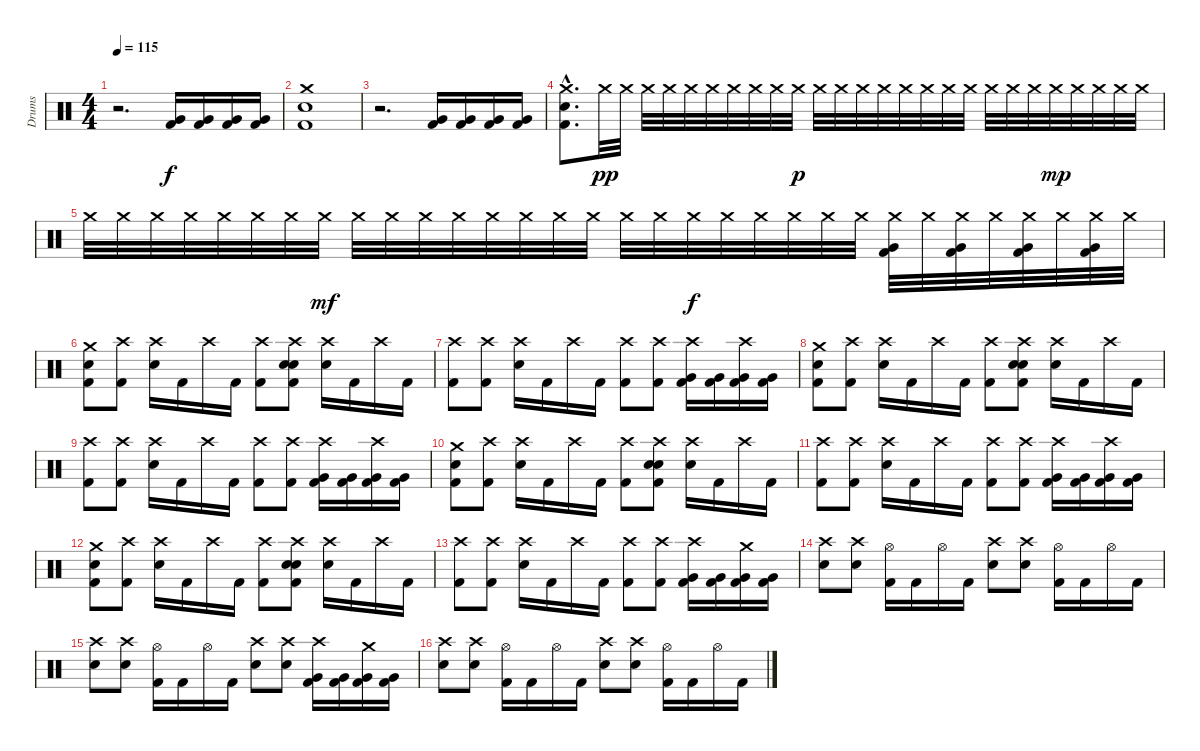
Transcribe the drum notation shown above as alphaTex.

\track ("Drums" "Drums") {instrument percussion}
\staff {score}
\articulation defaults
\ts (4 4)
\tempo 115
\clef neutral
\ks c
r.2{d dy f} ("Very Low Tom (hit)" "Kick (hit) 2").16 ("Very Low Tom (hit)" "Kick (hit) 2").16 ("Very Low Tom (hit)" "Kick (hit) 2").16 ("Very Low Tom (hit)" "Kick (hit) 2").16 |
("Crash medium (hit)" "Electric Snare (hit)" "Kick (hit) 2").1 |
r.2{d} ("Very Low Tom (hit)" "Kick (hit) 2").16 ("Very Low Tom (hit)" "Kick (hit) 2").16 ("Very Low Tom (hit)" "Kick (hit) 2").16 ("Very Low Tom (hit)" "Kick (hit) 2").16 |
("Crash medium (hit)"{hac} "Electric Snare (hit)"{hac} "Kick (hit) 2"{hac}).8{d} "Crash medium (hit)".32{dy pp} "Crash medium (hit)".32 "Crash medium (hit)".32 "Crash medium (hit)".32 "Crash medium (hit)".32 "Crash medium (hit)".32 "Crash medium (hit)".32 "Crash medium (hit)".32 "Crash medium (hit)".32 "Crash medium (hit)".32{dy p} "Crash medium (hit)".32 "Crash medium (hit)".32 "Crash medium (hit)".32 "Crash medium (hit)".32 "Crash medium (hit)".32 "Crash medium (hit)".32 "Crash medium (hit)".32 "Crash medium (hit)".32 "Crash medium (hit)".32 "Crash medium (hit)".32 "Crash medium (hit)".32 "Crash medium (hit)".32{dy mp} "Crash medium (hit)".32 "Crash medium (hit)".32 "Crash medium (hit)".32 "Crash medium (hit)".32 |
"Crash medium (hit)".32 "Crash medium (hit)".32 "Crash medium (hit)".32 "Crash medium (hit)".32 "Crash medium (hit)".32 "Crash medium (hit)".32 "Crash medium (hit)".32 "Crash medium (hit)".32{dy mf} "Crash medium (hit)".32 "Crash medium (hit)".32 "Crash medium (hit)".32 "Crash medium (hit)".32 "Crash medium (hit)".32 "Crash medium (hit)".32 "Crash medium (hit)".32 "Crash medium (hit)".32 "Crash medium (hit)".32 "Crash medium (hit)".32 "Crash medium (hit)".32{dy f} "Crash medium (hit)".32 "Crash medium (hit)".32 "Crash medium (hit)".32 "Crash medium (hit)".32 "Crash medium (hit)".32 ("Crash medium (hit)" "Very Low Tom (hit)" "Kick (hit) 2").32 "Crash medium (hit)".32 ("Crash medium (hit)" "Very Low Tom (hit)" "Kick (hit) 2").32 "Crash medium (hit)".32 ("Crash medium (hit)" "Very Low Tom (hit)" "Kick (hit) 2").32 "Crash medium (hit)".32 ("Crash medium (hit)" "Very Low Tom (hit)" "Kick (hit) 2").32 "Crash medium (hit)".32 |
("Crash medium (hit)" "Electric Snare (hit)" "Kick (hit) 2").8 ("Crash high (hit)" "Kick (hit) 2").8 ("Crash high (hit)" "Electric Snare (hit)").16 "Kick (hit) 2".16 "Crash high (hit)".16 "Kick (hit) 2".16 ("Crash high (hit)" "Kick (hit) 2").8 ("Snare (hit) 2" "Crash high (hit)" "Electric Snare (hit)" "Kick (hit) 2").8 ("Crash high (hit)" "Electric Snare (hit)").16 "Kick (hit) 2".16 "Crash high (hit)".16 "Kick (hit) 2".16 |
("Crash high (hit)" "Kick (hit) 2").8 ("Crash high (hit)" "Kick (hit) 2").8 ("Crash high (hit)" "Electric Snare (hit)").16 "Kick (hit) 2".16 "Crash high (hit)".16 "Kick (hit) 2".16 ("Crash high (hit)" "Kick (hit) 2").8 ("Crash high (hit)" "Kick (hit) 2").8 ("Crash high (hit)" "Very Low Tom (hit)" "Kick (hit) 2").16 ("Very Low Tom (hit)" "Kick (hit) 2").16 ("Crash high (hit)" "Very Low Tom (hit)" "Kick (hit) 2").16 ("Very Low Tom (hit)" "Kick (hit) 2").16 |
("Crash medium (hit)" "Electric Snare (hit)" "Kick (hit) 2").8 ("Crash high (hit)" "Kick (hit) 2").8 ("Crash high (hit)" "Electric Snare (hit)").16 "Kick (hit) 2".16 "Crash high (hit)".16 "Kick (hit) 2".16 ("Crash high (hit)" "Kick (hit) 2").8 ("Snare (hit) 2" "Crash high (hit)" "Electric Snare (hit)" "Kick (hit) 2").8 ("Crash high (hit)" "Electric Snare (hit)").16 "Kick (hit) 2".16 "Crash high (hit)".16 "Kick (hit) 2".16 |
("Crash high (hit)" "Kick (hit) 2").8 ("Crash high (hit)" "Kick (hit) 2").8 ("Crash high (hit)" "Electric Snare (hit)").16 "Kick (hit) 2".16 "Crash high (hit)".16 "Kick (hit) 2".16 ("Crash high (hit)" "Kick (hit) 2").8 ("Crash high (hit)" "Kick (hit) 2").8 ("Crash high (hit)" "Very Low Tom (hit)" "Kick (hit) 2").16 ("Very Low Tom (hit)" "Kick (hit) 2").16 ("Crash high (hit)" "Very Low Tom (hit)" "Kick (hit) 2").16 ("Very Low Tom (hit)" "Kick (hit) 2").16 |
("Crash medium (hit)" "Electric Snare (hit)" "Kick (hit) 2").8 ("Crash high (hit)" "Kick (hit) 2").8 ("Crash high (hit)" "Electric Snare (hit)").16 "Kick (hit) 2".16 "Crash high (hit)".16 "Kick (hit) 2".16 ("Crash high (hit)" "Kick (hit) 2").8 ("Snare (hit) 2" "Crash high (hit)" "Electric Snare (hit)" "Kick (hit) 2").8 ("Crash high (hit)" "Electric Snare (hit)").16 "Kick (hit) 2".16 "Crash high (hit)".16 "Kick (hit) 2".16 |
("Crash high (hit)" "Kick (hit) 2").8 ("Crash high (hit)" "Kick (hit) 2").8 ("Crash high (hit)" "Electric Snare (hit)").16 "Kick (hit) 2".16 "Crash high (hit)".16 "Kick (hit) 2".16 ("Crash high (hit)" "Kick (hit) 2").8 ("Crash high (hit)" "Kick (hit) 2").8 ("Crash high (hit)" "Very Low Tom (hit)" "Kick (hit) 2").16 ("Very Low Tom (hit)" "Kick (hit) 2").16 ("Crash high (hit)" "Very Low Tom (hit)" "Kick (hit) 2").16 ("Very Low Tom (hit)" "Kick (hit) 2").16 |
("Crash medium (hit)" "Electric Snare (hit)" "Kick (hit) 2").8 ("Crash high (hit)" "Kick (hit) 2").8 ("Crash high (hit)" "Electric Snare (hit)").16 "Kick (hit) 2".16 "Crash high (hit)".16 "Kick (hit) 2".16 ("Crash high (hit)" "Kick (hit) 2").8 ("Snare (hit) 2" "Crash high (hit)" "Electric Snare (hit)" "Kick (hit) 2").8 ("Crash high (hit)" "Electric Snare (hit)").16 "Kick (hit) 2".16 "Crash high (hit)".16 "Kick (hit) 2".16 |
("Crash high (hit)" "Kick (hit) 2").8 ("Crash high (hit)" "Kick (hit) 2").8 ("Crash high (hit)" "Electric Snare (hit)").16 "Kick (hit) 2".16 "Crash high (hit)".16 "Kick (hit) 2".16 ("Crash high (hit)" "Kick (hit) 2").8 ("Crash high (hit)" "Kick (hit) 2").8 ("Crash high (hit)" "Very Low Tom (hit)" "Kick (hit) 2").16 ("Very Low Tom (hit)" "Kick (hit) 2").16 ("Crash medium (hit)" "Very Low Tom (hit)" "Kick (hit) 2").16 ("Very Low Tom (hit)" "Kick (hit) 2").16 |
("Crash high (hit)" "Electric Snare (hit)").8 ("Crash high (hit)" "Electric Snare (hit)").8 ("Hi-Hat (open)" "Kick (hit) 2").16 "Kick (hit) 2".16 "Hi-Hat (open)".16 "Kick (hit) 2".16 ("Crash high (hit)" "Electric Snare (hit)").8 ("Crash high (hit)" "Electric Snare (hit)").8 ("Hi-Hat (open)" "Kick (hit) 2").16 "Kick (hit) 2".16 "Hi-Hat (open)".16 "Kick (hit) 2".16 |
("Crash high (hit)" "Electric Snare (hit)").8 ("Crash high (hit)" "Electric Snare (hit)").8 ("Hi-Hat (open)" "Kick (hit) 2").16 "Kick (hit) 2".16 "Hi-Hat (open)".16 "Kick (hit) 2".16 ("Crash high (hit)" "Electric Snare (hit)").8 ("Crash high (hit)" "Electric Snare (hit)").8 ("Crash high (hit)" "Very Low Tom (hit)" "Kick (hit) 2").16 ("Very Low Tom (hit)" "Kick (hit) 2").16 ("Crash medium (hit)" "Very Low Tom (hit)" "Kick (hit) 2").16 ("Very Low Tom (hit)" "Kick (hit) 2").16 |
("Crash high (hit)" "Electric Snare (hit)").8 ("Crash high (hit)" "Electric Snare (hit)").8 ("Hi-Hat (open)" "Kick (hit) 2").16 "Kick (hit) 2".16 "Hi-Hat (open)".16 "Kick (hit) 2".16 ("Crash high (hit)" "Electric Snare (hit)").8 ("Crash high (hit)" "Electric Snare (hit)").8 ("Hi-Hat (open)" "Kick (hit) 2").16 "Kick (hit) 2".16 "Hi-Hat (open)".16 "Kick (hit) 2".16
